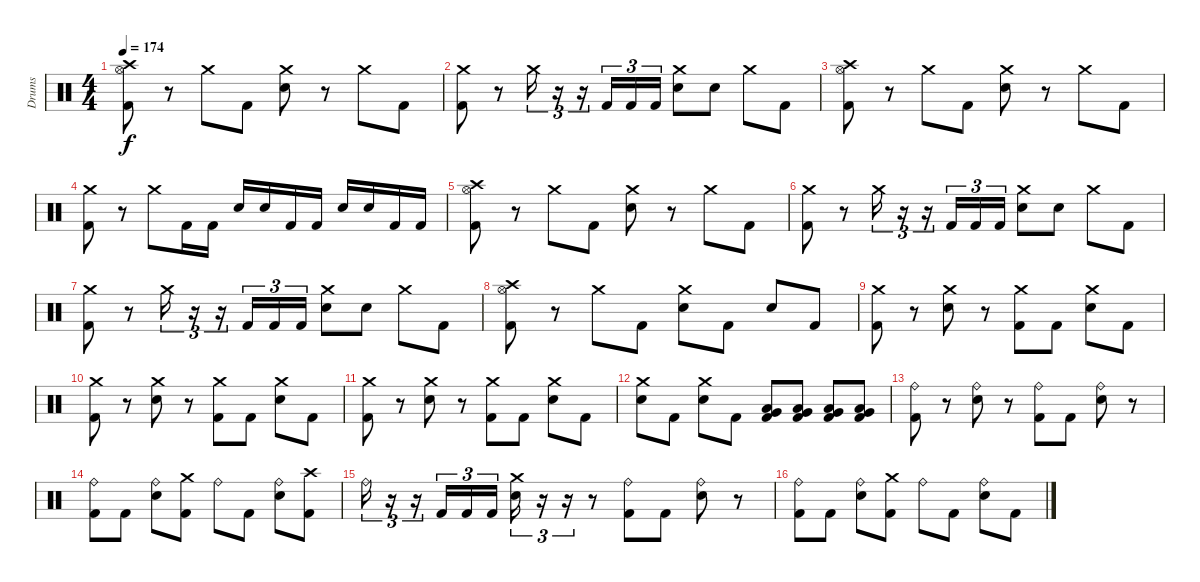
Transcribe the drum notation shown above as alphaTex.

\track ("Drums" "Drums") {instrument percussion}
\staff {score}
\articulation defaults
\ts (4 4)
\tempo 174
\clef neutral
\ks c
("Crash high (hit)" "Hi-Hat (open)" "Kick (hit) 2").8{dy f} r.8 "Crash medium (hit)".8 "Kick (hit) 2".8 ("Crash medium (hit)" "Electric Snare (hit)").8 r.8 "Crash medium (hit)".8 "Kick (hit) 2".8 |
("Crash medium (hit)" "Kick (hit) 2").8 r.8 "Crash medium (hit)".16{tu (3 2)} r.16{tu (3 2)} r.16{tu (3 2)} "Kick (hit) 2".16{tu (3 2)} "Kick (hit) 2".16{tu (3 2)} "Kick (hit) 2".16{tu (3 2)} ("Crash medium (hit)" "Electric Snare (hit)").8 "Electric Snare (hit)".8 "Crash medium (hit)".8 "Kick (hit) 2".8 |
("Crash high (hit)" "Hi-Hat (open)" "Kick (hit) 2").8 r.8 "Crash medium (hit)".8 "Kick (hit) 2".8 ("Crash medium (hit)" "Electric Snare (hit)").8 r.8 "Crash medium (hit)".8 "Kick (hit) 2".8 |
("Crash medium (hit)" "Kick (hit) 2").8 r.8 "Crash medium (hit)".8 "Kick (hit) 2".16 "Kick (hit) 2".16 "Electric Snare (hit)".16 "Electric Snare (hit)".16 "Kick (hit) 2".16 "Kick (hit) 2".16 "Electric Snare (hit)".16 "Electric Snare (hit)".16 "Kick (hit) 2".16 "Kick (hit) 2".16 |
("Crash high (hit)" "Hi-Hat (open)" "Kick (hit) 2").8 r.8 "Crash medium (hit)".8 "Kick (hit) 2".8 ("Crash medium (hit)" "Electric Snare (hit)").8 r.8 "Crash medium (hit)".8 "Kick (hit) 2".8 |
("Crash medium (hit)" "Kick (hit) 2").8 r.8 "Crash medium (hit)".16{tu (3 2)} r.16{tu (3 2)} r.16{tu (3 2)} "Kick (hit) 2".16{tu (3 2)} "Kick (hit) 2".16{tu (3 2)} "Kick (hit) 2".16{tu (3 2)} ("Crash medium (hit)" "Electric Snare (hit)").8 "Electric Snare (hit)".8 "Crash medium (hit)".8 "Kick (hit) 2".8 |
("Crash medium (hit)" "Kick (hit) 2").8 r.8 "Crash medium (hit)".16{tu (3 2)} r.16{tu (3 2)} r.16{tu (3 2)} "Kick (hit) 2".16{tu (3 2)} "Kick (hit) 2".16{tu (3 2)} "Kick (hit) 2".16{tu (3 2)} ("Crash medium (hit)" "Electric Snare (hit)").8 "Electric Snare (hit)".8 "Crash medium (hit)".8 "Kick (hit) 2".8 |
("Crash high (hit)" "Hi-Hat (open)" "Kick (hit) 2").8 r.8 "Crash medium (hit)".8 "Kick (hit) 2".8 ("Crash medium (hit)" "Electric Snare (hit)").8 "Kick (hit) 2".8 "Electric Snare (hit)".8 "Kick (hit) 2".8 |
("Crash medium (hit)" "Kick (hit) 2").8 r.8 ("Crash medium (hit)" "Electric Snare (hit)").8 r.8 ("Crash medium (hit)" "Kick (hit) 2").8 "Kick (hit) 2".8 ("Crash medium (hit)" "Electric Snare (hit)").8 "Kick (hit) 2".8 |
("Crash medium (hit)" "Kick (hit) 2").8 r.8 ("Crash medium (hit)" "Electric Snare (hit)").8 r.8 ("Crash medium (hit)" "Kick (hit) 2").8 "Kick (hit) 2".8 ("Crash medium (hit)" "Electric Snare (hit)").8 "Kick (hit) 2".8 |
("Crash medium (hit)" "Kick (hit) 2").8 r.8 ("Crash medium (hit)" "Electric Snare (hit)").8 r.8 ("Crash medium (hit)" "Kick (hit) 2").8 "Kick (hit) 2".8 ("Crash medium (hit)" "Electric Snare (hit)").8 "Kick (hit) 2".8 |
("Crash medium (hit)" "Electric Snare (hit)").8 "Kick (hit) 2".8 ("Crash medium (hit)" "Electric Snare (hit)").8 "Kick (hit) 2".8 ("Low Floor Tom (hit)" "Very Low Tom (hit)" "Kick (hit) 2").8 ("Low Floor Tom (hit)" "Very Low Tom (hit)" "Kick (hit) 2").8 ("Low Floor Tom (hit)" "Very Low Tom (hit)" "Kick (hit) 2").8 ("Low Floor Tom (hit)" "Very Low Tom (hit)" "Kick (hit) 2").8 |
("Ride (bell)" "Kick (hit) 2").8 r.8 ("Ride (bell)" "Electric Snare (hit)").8 r.8 ("Ride (bell)" "Kick (hit) 2").8 "Kick (hit) 2".8 ("Ride (bell)" "Electric Snare (hit)").8 r.8 |
("Ride (bell)" "Kick (hit) 2").8 "Kick (hit) 2".8 ("Ride (bell)" "Electric Snare (hit)").8 ("Crash medium (hit)" "Kick (hit) 2").8 "Ride (bell)".8 "Kick (hit) 2".8 ("Ride (bell)" "Electric Snare (hit)").8 ("Crash high (hit)" "Kick (hit) 2").8 |
"Ride (bell)".16{tu (3 2)} r.16{tu (3 2)} r.16{tu (3 2)} "Kick (hit) 2".16{tu (3 2)} "Kick (hit) 2".16{tu (3 2)} "Kick (hit) 2".16{tu (3 2)} ("Crash medium (hit)" "Electric Snare (hit)").16{tu (3 2)} r.16{tu (3 2)} r.16{tu (3 2)} r.8 ("Ride (bell)" "Kick (hit) 2").8 "Kick (hit) 2".8 ("Ride (bell)" "Electric Snare (hit)").8 r.8 |
("Ride (bell)" "Kick (hit) 2").8 "Kick (hit) 2".8 ("Ride (bell)" "Electric Snare (hit)").8 ("Crash medium (hit)" "Kick (hit) 2").8 "Ride (bell)".8 "Kick (hit) 2".8 ("Ride (bell)" "Electric Snare (hit)").8 "Kick (hit) 2".8
